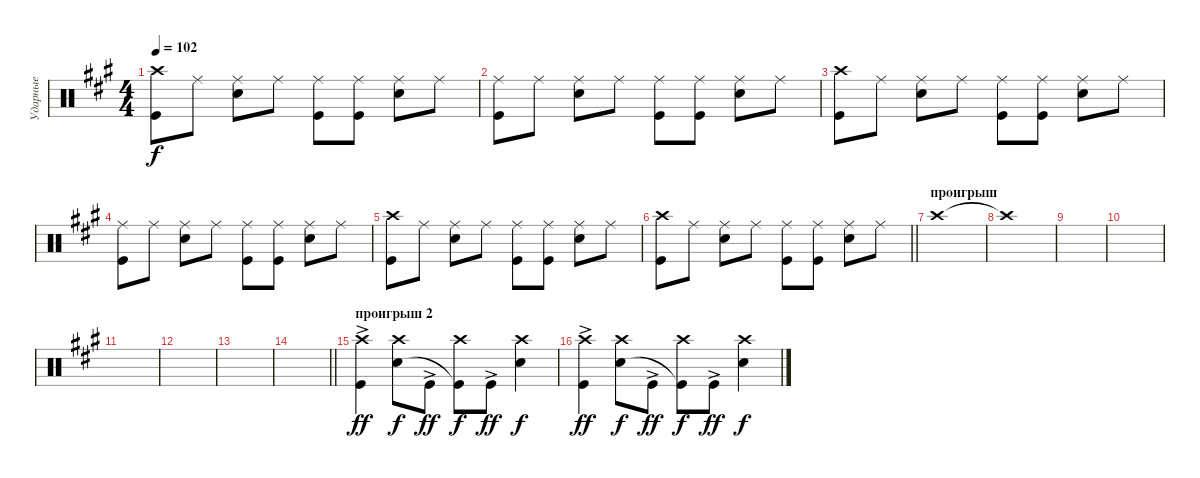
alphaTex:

\track ("Ударные" "Ударные") {instrument percussion}
\staff {score}
\articulation defaults
\ts (4 4)
\tempo 102
\clef neutral
\ks f#minor
("Crash high (hit)" "Kick (hit)").8{dy f} "Ride (middle)".8 ("Ride (middle)" "Snare (hit) 2").8 "Ride (middle)".8 ("Ride (middle)" "Kick (hit)").8 ("Ride (middle)" "Kick (hit)").8 ("Ride (middle)" "Snare (hit) 2").8 "Ride (middle)".8 |
("Ride (middle)" "Kick (hit)").8 "Ride (middle)".8 ("Ride (middle)" "Snare (hit) 2").8 "Ride (middle)".8 ("Ride (middle)" "Kick (hit)").8 ("Ride (middle)" "Kick (hit)").8 ("Snare (hit) 2" "Ride (middle)").8 "Ride (middle)".8 |
("Crash high (hit)" "Kick (hit)").8 "Ride (middle)".8 ("Ride (middle)" "Snare (hit) 2").8 "Ride (middle)".8 ("Ride (middle)" "Kick (hit)").8 ("Ride (middle)" "Kick (hit)").8 ("Ride (middle)" "Snare (hit) 2").8 "Ride (middle)".8 |
("Ride (middle)" "Kick (hit)").8 "Ride (middle)".8 ("Ride (middle)" "Snare (hit) 2").8 "Ride (middle)".8 ("Ride (middle)" "Kick (hit)").8 ("Ride (middle)" "Kick (hit)").8 ("Snare (hit) 2" "Ride (middle)").8 "Ride (middle)".8 |
("Crash high (hit)" "Kick (hit)").8 "Ride (middle)".8 ("Ride (middle)" "Snare (hit) 2").8 "Ride (middle)".8 ("Ride (middle)" "Kick (hit)").8 ("Ride (middle)" "Kick (hit)").8 ("Ride (middle)" "Snare (hit) 2").8 "Ride (middle)".8 |
\barLineRight lightlight
("Crash high (hit)" "Kick (hit)").8 "Ride (middle)".8 ("Ride (middle)" "Snare (hit) 2").8 "Ride (middle)".8 ("Ride (middle)" "Kick (hit)").8 ("Ride (middle)" "Kick (hit)").8 ("Ride (middle)" "Snare (hit) 2").8 "Ride (middle)".8 |
\section ("" "проигрыш")
"Crash high (hit)".1 |
"Crash high (hit)"{t}.1 |
|
|
|
|
|
\barLineRight lightlight
|
\section ("" "проигрыш 2")
("Crash high (hit)" "Kick (hit)"{ac}).4{dy ff} ("Crash high (hit)" "Snare (hit) 2").8{dy f} "Kick (hit)"{ac}.8{dy ff} ("Crash high (hit)" "Kick (hit)"{t}).8{dy f} "Kick (hit)"{ac}.8{dy ff} ("Crash high (hit)" "Snare (hit) 2").4{dy f} |
("Crash high (hit)" "Kick (hit)"{ac}).4{dy ff} ("Crash high (hit)" "Snare (hit) 2").8{dy f} "Kick (hit)"{ac}.8{dy ff} ("Crash high (hit)" "Kick (hit)"{t}).8{dy f} "Kick (hit)"{ac}.8{dy ff} ("Crash high (hit)" "Snare (hit) 2").4{dy f}
